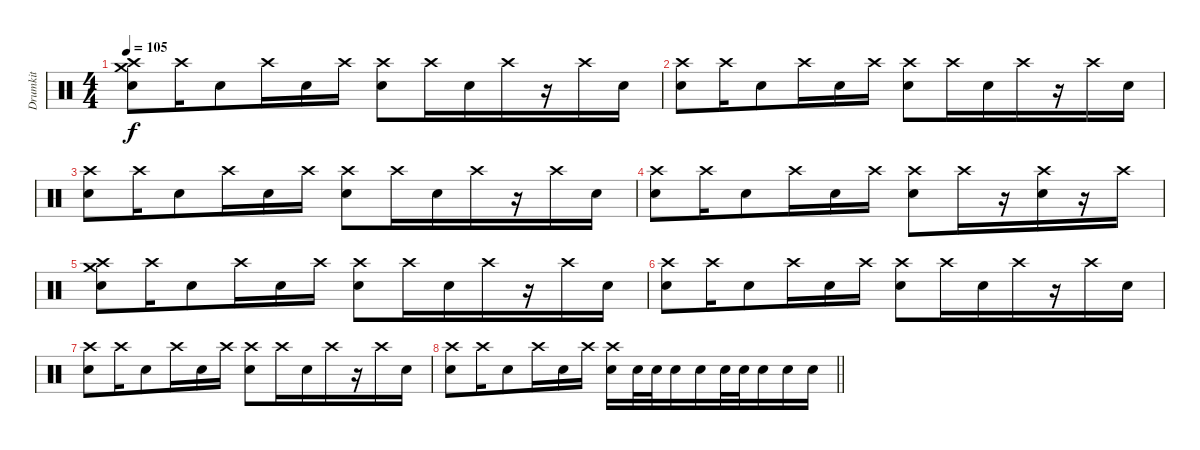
\track ("Drumkit" "Drumkit") {instrument percussion}
\staff {score}
\articulation defaults
\ts (4 4)
\tempo 105
\clef neutral
\ks c
("Crash medium (hit)" "Crash high (hit)" "Electric Snare (hit)").8{dy f beam merge} "Crash high (hit)".16 "Electric Snare (hit)".8{beam merge} "Crash high (hit)".16 "Electric Snare (hit)".16{beam merge} "Crash high (hit)".16 ("Crash high (hit)" "Electric Snare (hit)").8 "Crash high (hit)".16{beam merge} "Electric Snare (hit)".16{beam merge} "Crash high (hit)".16 r.16{beam merge} "Crash high (hit)".16 "Electric Snare (hit)".16 |
("Crash high (hit)" "Electric Snare (hit)").8{beam merge} "Crash high (hit)".16 "Electric Snare (hit)".8{beam merge} "Crash high (hit)".16 "Electric Snare (hit)".16{beam merge} "Crash high (hit)".16 ("Crash high (hit)" "Electric Snare (hit)").8 "Crash high (hit)".16{beam merge} "Electric Snare (hit)".16{beam merge} "Crash high (hit)".16 r.16{beam merge} "Crash high (hit)".16 "Electric Snare (hit)".16 |
("Crash high (hit)" "Electric Snare (hit)").8{beam merge} "Crash high (hit)".16 "Electric Snare (hit)".8{beam merge} "Crash high (hit)".16 "Electric Snare (hit)".16{beam merge} "Crash high (hit)".16 ("Crash high (hit)" "Electric Snare (hit)").8 "Crash high (hit)".16{beam merge} "Electric Snare (hit)".16{beam merge} "Crash high (hit)".16 r.16{beam merge} "Crash high (hit)".16 "Electric Snare (hit)".16 |
("Crash high (hit)" "Electric Snare (hit)").8{beam merge} "Crash high (hit)".16 "Electric Snare (hit)".8{beam merge} "Crash high (hit)".16 "Electric Snare (hit)".16{beam merge} "Crash high (hit)".16 ("Crash high (hit)" "Electric Snare (hit)").8 "Crash high (hit)".16{beam merge} r.16{beam merge} ("Crash high (hit)" "Electric Snare (hit)").16 r.16{beam merge} "Crash high (hit)".16 |
("Crash medium (hit)" "Crash high (hit)" "Electric Snare (hit)").8{beam merge} "Crash high (hit)".16 "Electric Snare (hit)".8{beam merge} "Crash high (hit)".16 "Electric Snare (hit)".16{beam merge} "Crash high (hit)".16 ("Crash high (hit)" "Electric Snare (hit)").8 "Crash high (hit)".16{beam merge} "Electric Snare (hit)".16{beam merge} "Crash high (hit)".16 r.16{beam merge} "Crash high (hit)".16 "Electric Snare (hit)".16 |
("Crash high (hit)" "Electric Snare (hit)").8{beam merge} "Crash high (hit)".16 "Electric Snare (hit)".8{beam merge} "Crash high (hit)".16 "Electric Snare (hit)".16{beam merge} "Crash high (hit)".16 ("Crash high (hit)" "Electric Snare (hit)").8 "Crash high (hit)".16{beam merge} "Electric Snare (hit)".16{beam merge} "Crash high (hit)".16 r.16{beam merge} "Crash high (hit)".16 "Electric Snare (hit)".16 |
("Crash high (hit)" "Electric Snare (hit)").8{beam merge} "Crash high (hit)".16 "Electric Snare (hit)".8{beam merge} "Crash high (hit)".16 "Electric Snare (hit)".16{beam merge} "Crash high (hit)".16 ("Crash high (hit)" "Electric Snare (hit)").8 "Crash high (hit)".16{beam merge} "Electric Snare (hit)".16{beam merge} "Crash high (hit)".16 r.16{beam merge} "Crash high (hit)".16 "Electric Snare (hit)".16 |
\barLineRight lightlight
("Crash high (hit)" "Electric Snare (hit)").8{beam merge} "Crash high (hit)".16 "Electric Snare (hit)".8{beam merge} "Crash high (hit)".16 "Electric Snare (hit)".16{beam merge} "Crash high (hit)".16 ("Crash high (hit)" "Electric Snare (hit)").16 "Electric Snare (hit)".32{beam merge} "Electric Snare (hit)".32{beam merge} "Electric Snare (hit)".16 "Electric Snare (hit)".16{beam merge} "Electric Snare (hit)".32 "Electric Snare (hit)".32{beam merge} "Electric Snare (hit)".16{beam merge} "Electric Snare (hit)".16{beam merge} "Electric Snare (hit)".16
